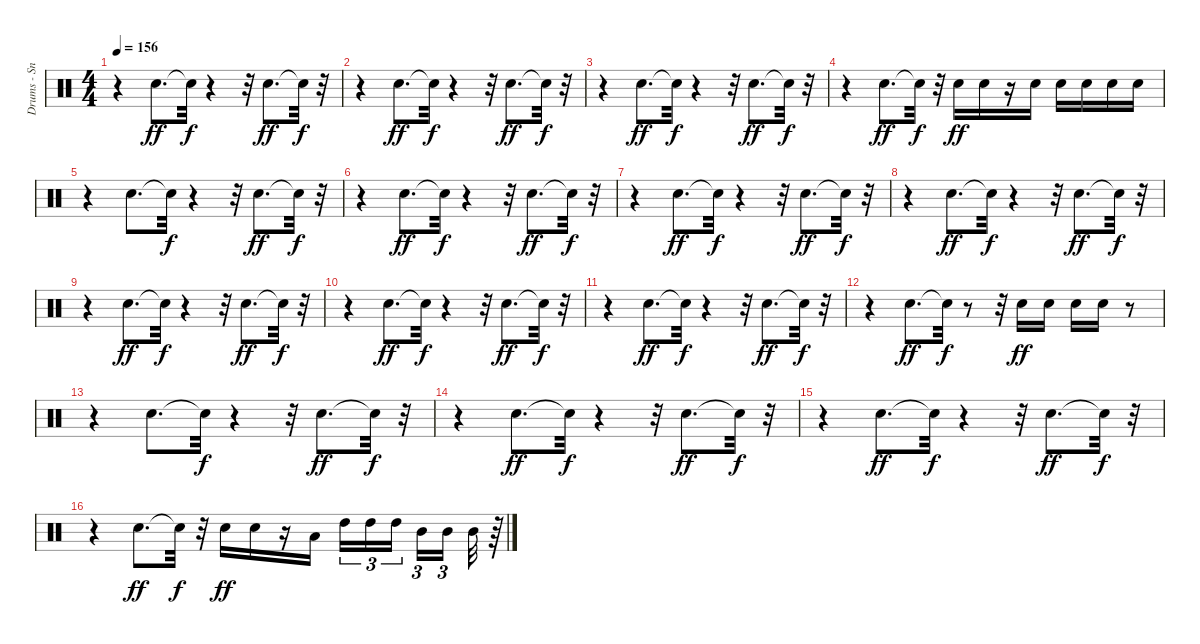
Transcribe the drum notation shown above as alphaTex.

\track ("Drums - Snare/Toms" "Drums - Sn") {instrument percussion}
\staff {score}
\articulation defaults
\ts (4 4)
\tempo 156
\clef neutral
\ks c
r.4{dy f} "Electric Snare (hit)".8{d dy ff} "Snare (hit)"{t}.32{dy f} r.4 r.32 "Electric Snare (hit)".8{d dy ff} "Snare (hit)"{t}.32{dy f} r.32 |
r.4 "Electric Snare (hit)".8{d dy ff} "Snare (hit)"{t}.32{dy f} r.4 r.32 "Electric Snare (hit)".8{d dy ff} "Snare (hit)"{t}.32{dy f} r.32 |
r.4 "Electric Snare (hit)".8{d dy ff} "Snare (hit)"{t}.32{dy f} r.4 r.32 "Electric Snare (hit)".8{d dy ff} "Snare (hit)"{t}.32{dy f} r.32 |
r.4 "Electric Snare (hit)".8{d dy ff} "Snare (hit)"{t}.32{dy f} r.32 "Electric Snare (hit)".16{dy ff} "Electric Snare (hit)".16 r.16 "Electric Snare (hit)".16 "Electric Snare (hit)".16 "Electric Snare (hit)".16 "Electric Snare (hit)".16 "Electric Snare (hit)".16 |
r.4 "Electric Snare (hit)".8{d} "Snare (hit)"{t}.32{dy f} r.4 r.32 "Electric Snare (hit)".8{d dy ff} "Snare (hit)"{t}.32{dy f} r.32 |
r.4 "Electric Snare (hit)".8{d dy ff} "Snare (hit)"{t}.32{dy f} r.4 r.32 "Electric Snare (hit)".8{d dy ff} "Snare (hit)"{t}.32{dy f} r.32 |
r.4 "Electric Snare (hit)".8{d dy ff} "Snare (hit)"{t}.32{dy f} r.4 r.32 "Electric Snare (hit)".8{d dy ff} "Snare (hit)"{t}.32{dy f} r.32 |
r.4 "Electric Snare (hit)".8{d dy ff} "Snare (hit)"{t}.32{dy f} r.4 r.32 "Electric Snare (hit)".8{d dy ff} "Snare (hit)"{t}.32{dy f} r.32 |
r.4 "Electric Snare (hit)".8{d dy ff} "Snare (hit)"{t}.32{dy f} r.4 r.32 "Electric Snare (hit)".8{d dy ff} "Snare (hit)"{t}.32{dy f} r.32 |
r.4 "Electric Snare (hit)".8{d dy ff} "Snare (hit)"{t}.32{dy f} r.4 r.32 "Electric Snare (hit)".8{d dy ff} "Snare (hit)"{t}.32{dy f} r.32 |
r.4 "Electric Snare (hit)".8{d dy ff} "Snare (hit)"{t}.32{dy f} r.4 r.32 "Electric Snare (hit)".8{d dy ff} "Snare (hit)"{t}.32{dy f} r.32 |
r.4 "Electric Snare (hit)".8{d dy ff} "Snare (hit)"{t}.32{dy f} r.8 r.32 "Electric Snare (hit)".16{dy ff} "Electric Snare (hit)".16 "Electric Snare (hit)".16 "Electric Snare (hit)".16 r.8 |
r.4 "Electric Snare (hit)".8{d} "Snare (hit)"{t}.32{dy f} r.4 r.32 "Electric Snare (hit)".8{d dy ff} "Snare (hit)"{t}.32{dy f} r.32 |
r.4 "Electric Snare (hit)".8{d dy ff} "Snare (hit)"{t}.32{dy f} r.4 r.32 "Electric Snare (hit)".8{d dy ff} "Snare (hit)"{t}.32{dy f} r.32 |
r.4 "Electric Snare (hit)".8{d dy ff} "Snare (hit)"{t}.32{dy f} r.4 r.32 "Electric Snare (hit)".8{d dy ff} "Snare (hit)"{t}.32{dy f} r.32 |
r.4 "Electric Snare (hit)".8{d dy ff} "Snare (hit)"{t}.32{dy f} r.32 "Electric Snare (hit)".16{dy ff} "Electric Snare (hit)".16 r.16 "Low Tom (hit)".16 "High Tom (hit)".16{tu (3 2)} "High Tom (hit)".16{tu (3 2)} "High Tom (hit)".16{tu (3 2) beam splitsecondary} "Mid Tom (hit)".16{tu (3 2)} "Mid Tom (hit)".16{tu (3 2) beam splitsecondary} "Mid Tom (hit)".32 r.64{tu (3 2)}
